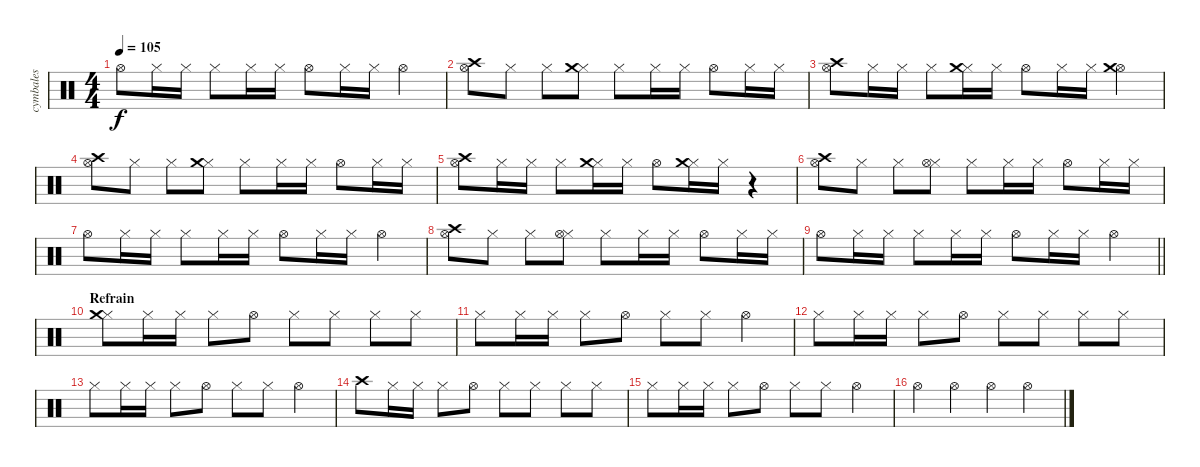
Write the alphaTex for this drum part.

\track ("cymbales" "cymbales") {instrument percussion}
\staff {score}
\articulation defaults
\ts (4 4)
\tempo 105
\clef neutral
\ks c "Hi-Hat (open)".8{dy f} "Hi-Hat (closed)".16 "Hi-Hat (closed)".16 "Hi-Hat (closed)".8 "Hi-Hat (closed)".16 "Hi-Hat (closed)".16 "Hi-Hat (open)".8 "Hi-Hat (closed)".16 "Hi-Hat (closed)".16 "Hi-Hat (open)".4
|
("Hi-Hat (open)" "Crash high (hit)").8 "Hi-Hat (closed)".8 "Hi-Hat (closed)".8 ("Hi-Hat (closed)" "Crash medium (hit)").8 "Hi-Hat (closed)".8 "Hi-Hat (closed)".16 "Hi-Hat (closed)".16 "Hi-Hat (open)".8 "Hi-Hat (closed)".16 "Hi-Hat (closed)".16 |
("Hi-Hat (open)" "Crash high (hit)").8 "Hi-Hat (closed)".16 "Hi-Hat (closed)".16 "Hi-Hat (closed)".8 ("Hi-Hat (closed)" "Crash medium (hit)").16 "Hi-Hat (closed)".16 "Hi-Hat (open)".8 "Hi-Hat (closed)".16 "Hi-Hat (closed)".16 ("Hi-Hat (open)" "Crash medium (hit)").4 |
("Hi-Hat (open)" "Crash high (hit)").8 "Hi-Hat (closed)".8 "Hi-Hat (closed)".8 ("Hi-Hat (closed)" "Crash medium (hit)").8 "Hi-Hat (closed)".8 "Hi-Hat (closed)".16 "Hi-Hat (closed)".16 "Hi-Hat (open)".8 "Hi-Hat (closed)".16 "Hi-Hat (closed)".16 |
("Hi-Hat (open)" "Crash high (hit)").8 "Hi-Hat (closed)".16 "Hi-Hat (closed)".16 "Hi-Hat (closed)".8 ("Hi-Hat (closed)" "Crash medium (hit)").16 "Hi-Hat (closed)".16 "Hi-Hat (open)".8 ("Hi-Hat (closed)" "Crash medium (hit)").16 "Hi-Hat (closed)".16 r.4 |
("Hi-Hat (open)" "Crash high (hit)").8 "Hi-Hat (closed)".8 "Hi-Hat (closed)".8 ("Hi-Hat (closed)" "Hi-Hat (open)").8 "Hi-Hat (closed)".8 "Hi-Hat (closed)".16 "Hi-Hat (closed)".16 "Hi-Hat (open)".8 "Hi-Hat (closed)".16 "Hi-Hat (closed)".16 |
"Hi-Hat (open)".8 "Hi-Hat (closed)".16 "Hi-Hat (closed)".16 "Hi-Hat (closed)".8 "Hi-Hat (closed)".16 "Hi-Hat (closed)".16 "Hi-Hat (open)".8 "Hi-Hat (closed)".16 "Hi-Hat (closed)".16 "Hi-Hat (open)".4 |
("Hi-Hat (open)" "Crash high (hit)").8 "Hi-Hat (closed)".8 "Hi-Hat (closed)".8 ("Hi-Hat (closed)" "Hi-Hat (open)").8 "Hi-Hat (closed)".8 "Hi-Hat (closed)".16 "Hi-Hat (closed)".16 "Hi-Hat (open)".8 "Hi-Hat (closed)".16 "Hi-Hat (closed)".16 |
\barLineRight lightlight "Hi-Hat (open)".8 "Hi-Hat (closed)".16 "Hi-Hat (closed)".16 "Hi-Hat (closed)".8 "Hi-Hat (closed)".16 "Hi-Hat (closed)".16 "Hi-Hat (open)".8 "Hi-Hat (closed)".16 "Hi-Hat (closed)".16 "Hi-Hat (open)".4
|
\section ("" "Refrain")
("Hi-Hat (closed)" "Crash medium (hit)").8 "Hi-Hat (closed)".16 "Hi-Hat (closed)".16 "Hi-Hat (closed)".8 "Hi-Hat (open)".8 "Hi-Hat (closed)".8 "Hi-Hat (closed)".8 "Hi-Hat (closed)".8 "Hi-Hat (closed)".8 |
"Hi-Hat (closed)".8 "Hi-Hat (closed)".16 "Hi-Hat (closed)".16 "Hi-Hat (closed)".8 "Hi-Hat (open)".8 "Hi-Hat (closed)".8 "Hi-Hat (closed)".8 "Hi-Hat (open)".4 |
"Hi-Hat (closed)".8 "Hi-Hat (closed)".16 "Hi-Hat (closed)".16 "Hi-Hat (closed)".8 "Hi-Hat (open)".8 "Hi-Hat (closed)".8 "Hi-Hat (closed)".8 "Hi-Hat (closed)".8 "Hi-Hat (closed)".8 |
"Hi-Hat (closed)".8 "Hi-Hat (closed)".16 "Hi-Hat (closed)".16 "Hi-Hat (closed)".8 "Hi-Hat (open)".8 "Hi-Hat (closed)".8 "Hi-Hat (closed)".8 "Hi-Hat (open)".4 |
"Crash high (hit)".8 "Hi-Hat (closed)".16 "Hi-Hat (closed)".16 "Hi-Hat (closed)".8 "Hi-Hat (open)".8 "Hi-Hat (closed)".8 "Hi-Hat (closed)".8 "Hi-Hat (closed)".8 "Hi-Hat (closed)".8 |
"Hi-Hat (closed)".8 "Hi-Hat (closed)".16 "Hi-Hat (closed)".16 "Hi-Hat (closed)".8 "Hi-Hat (open)".8 "Hi-Hat (closed)".8 "Hi-Hat (closed)".8 "Hi-Hat (open)".4 |
"Hi-Hat (open)".4 "Hi-Hat (open)".4 "Hi-Hat (open)".4 "Hi-Hat (open)".4
